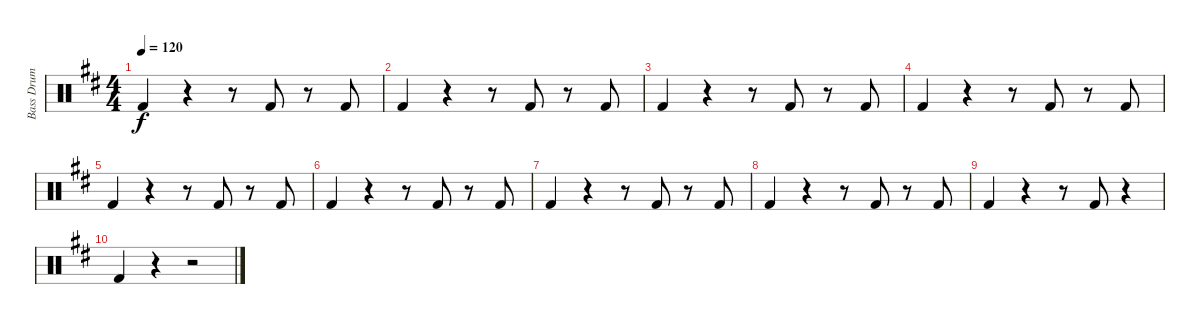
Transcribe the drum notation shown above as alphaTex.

\track ("Bass Drum" "Bass Drum") {instrument percussion}
\staff {score}
\articulation defaults
\ts (4 4)
\tempo 120
\clef neutral
\ks d "Kick (hit) 2".4{dy f}
r.4 r.8 "Kick (hit) 2".8 r.8 "Kick (hit) 2".8 |
"Kick (hit) 2".4 r.4 r.8 "Kick (hit) 2".8 r.8 "Kick (hit) 2".8 |
"Kick (hit) 2".4 r.4 r.8 "Kick (hit) 2".8 r.8 "Kick (hit) 2".8 |
"Kick (hit) 2".4 r.4 r.8 "Kick (hit) 2".8 r.8 "Kick (hit) 2".8 |
"Kick (hit) 2".4 r.4 r.8 "Kick (hit) 2".8 r.8 "Kick (hit) 2".8 |
"Kick (hit) 2".4 r.4 r.8 "Kick (hit) 2".8 r.8 "Kick (hit) 2".8 |
"Kick (hit) 2".4 r.4 r.8 "Kick (hit) 2".8 r.8 "Kick (hit) 2".8 |
"Kick (hit) 2".4 r.4 r.8 "Kick (hit) 2".8 r.8 "Kick (hit) 2".8 |
"Kick (hit) 2".4 r.4 r.8 "Kick (hit) 2".8 r.4 |
"Kick (hit) 2".4 r.4 r.2
